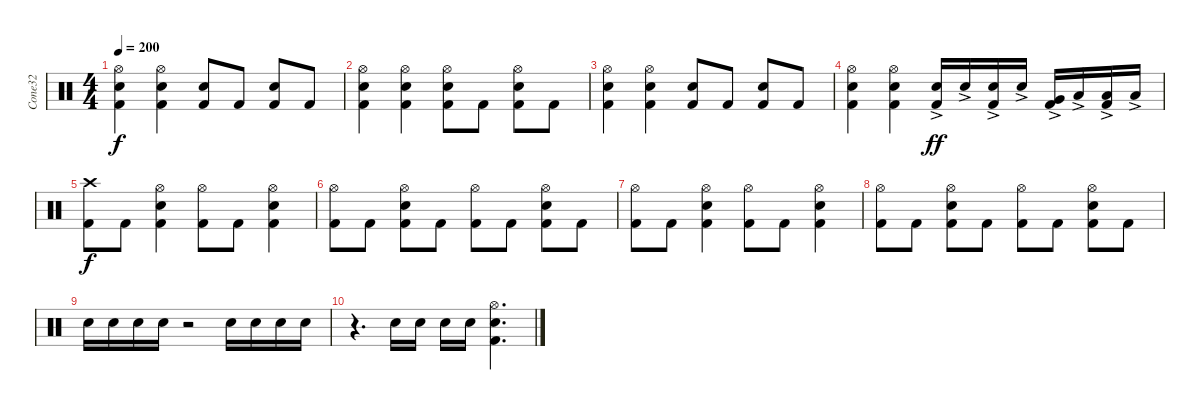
\track ("Cone32" "Cone32") {instrument percussion}
\staff {score}
\articulation defaults
\ts (4 4)
\tempo 200
\clef neutral
\ks c
("Hi-Hat (open)" "Snare (hit) 2" "Kick (hit) 2").4{dy f} ("Hi-Hat (open)" "Snare (hit) 2" "Kick (hit) 2").4 ("Snare (hit) 2" "Kick (hit) 2").8 "Kick (hit) 2".8 ("Snare (hit) 2" "Kick (hit) 2").8 "Kick (hit) 2".8 |
("Hi-Hat (open)" "Snare (hit) 2" "Kick (hit) 2").4 ("Hi-Hat (open)" "Snare (hit) 2" "Kick (hit) 2").4 ("Hi-Hat (open)" "Snare (hit) 2" "Kick (hit) 2").8 "Kick (hit) 2".8 ("Hi-Hat (open)" "Snare (hit) 2" "Kick (hit) 2").8 "Kick (hit) 2".8 |
("Hi-Hat (open)" "Snare (hit) 2" "Kick (hit) 2").4 ("Hi-Hat (open)" "Snare (hit) 2" "Kick (hit) 2").4 ("Snare (hit) 2" "Kick (hit) 2").8 "Kick (hit) 2".8 ("Snare (hit) 2" "Kick (hit) 2").8 "Kick (hit) 2".8 |
("Hi-Hat (open)" "Snare (hit) 2" "Kick (hit) 2").4 ("Hi-Hat (open)" "Snare (hit) 2" "Kick (hit) 2").4 ("Snare (hit) 2"{ac} "Kick (hit) 2").16{dy ff} "Snare (hit) 2"{ac}.16 ("Snare (hit) 2"{ac} "Kick (hit) 2").16 "Snare (hit) 2"{ac}.16 ("Very Low Tom (hit)"{ac} "Kick (hit) 2").16 "Low Floor Tom (hit)"{ac}.16 ("Low Floor Tom (hit)"{ac} "Kick (hit) 2").16 "Low Floor Tom (hit)"{ac}.16 |
("Crash high (hit)" "Kick (hit) 2").8{dy f} "Kick (hit) 2".8 ("Hi-Hat (open)" "Snare (hit) 2" "Kick (hit) 2").4 ("Hi-Hat (open)" "Kick (hit) 2").8 "Kick (hit) 2".8 ("Hi-Hat (open)" "Snare (hit) 2" "Kick (hit) 2").4 |
("Hi-Hat (open)" "Kick (hit) 2").8 "Kick (hit) 2".8 ("Hi-Hat (open)" "Snare (hit) 2" "Kick (hit) 2").8 "Kick (hit) 2".8 ("Hi-Hat (open)" "Kick (hit) 2").8 "Kick (hit) 2".8 ("Hi-Hat (open)" "Snare (hit) 2" "Kick (hit) 2").8 "Kick (hit) 2".8 |
("Hi-Hat (open)" "Kick (hit) 2").8 "Kick (hit) 2".8 ("Hi-Hat (open)" "Snare (hit) 2" "Kick (hit) 2").4 ("Hi-Hat (open)" "Kick (hit) 2").8 "Kick (hit) 2".8 ("Hi-Hat (open)" "Snare (hit) 2" "Kick (hit) 2").4 |
("Hi-Hat (open)" "Kick (hit) 2").8 "Kick (hit) 2".8 ("Hi-Hat (open)" "Snare (hit) 2" "Kick (hit) 2").8 "Kick (hit) 2".8 ("Hi-Hat (open)" "Kick (hit) 2").8 "Kick (hit) 2".8 ("Hi-Hat (open)" "Snare (hit) 2" "Kick (hit) 2").8 "Kick (hit) 2".8 |
"Snare (hit) 2".16 "Snare (hit) 2".16 "Snare (hit) 2".16 "Snare (hit) 2".16 r.2 "Snare (hit) 2".16 "Snare (hit) 2".16 "Snare (hit) 2".16 "Snare (hit) 2".16 |
r.4{d} "Snare (hit) 2".16 "Snare (hit) 2".16 "Snare (hit) 2".16 "Snare (hit) 2".16 ("Hi-Hat (open)" "Snare (hit) 2" "Kick (hit) 2").4{d}
